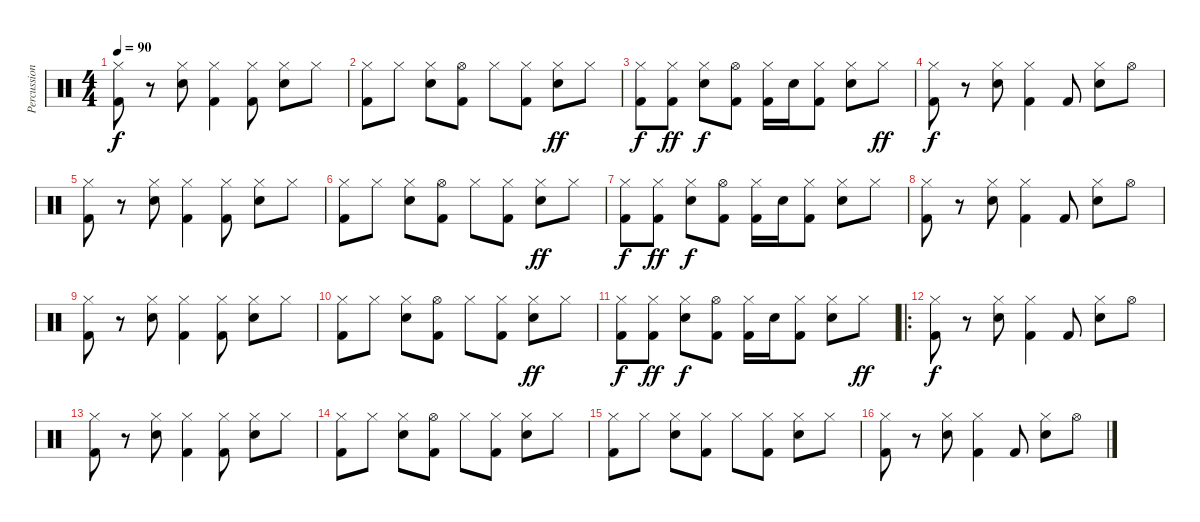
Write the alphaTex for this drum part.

\track ("Percussion" "Percussion") {instrument percussion}
\staff {score}
\articulation defaults
\ts (4 4)
\tempo 90
\clef neutral
\ks c
("Hi-Hat (closed)" "Kick (hit) 2").8{dy f} r.8 ("Hi-Hat (closed)" "Snare (hit) 2").8 ("Hi-Hat (closed)" "Kick (hit) 2").4 ("Hi-Hat (closed)" "Kick (hit) 2").8 ("Hi-Hat (closed)" "Snare (hit) 2").8 "Hi-Hat (closed)".8 |
("Hi-Hat (closed)" "Kick (hit) 2").8 "Hi-Hat (closed)".8 ("Hi-Hat (closed)" "Snare (hit) 2").8 ("Hi-Hat (open)" "Kick (hit) 2").8 "Hi-Hat (closed)".8 ("Hi-Hat (closed)" "Kick (hit) 2").8 ("Hi-Hat (closed)" "Snare (hit) 2").8{dy ff} "Hi-Hat (closed)".8 |
("Hi-Hat (closed)" "Kick (hit) 2").8{dy f} ("Hi-Hat (closed)" "Kick (hit) 2").8{dy ff} ("Hi-Hat (closed)" "Snare (hit) 2").8{dy f} ("Hi-Hat (open)" "Kick (hit) 2").8 ("Hi-Hat (closed)" "Kick (hit) 2").16 "Snare (hit) 2".16 ("Hi-Hat (closed)" "Kick (hit) 2").8 ("Hi-Hat (closed)" "Snare (hit) 2").8 "Hi-Hat (closed)".8{dy ff} |
("Hi-Hat (closed)" "Kick (hit) 2").8{dy f} r.8 ("Hi-Hat (closed)" "Snare (hit) 2").8 ("Hi-Hat (closed)" "Kick (hit) 2").4 "Kick (hit) 2".8 ("Hi-Hat (closed)" "Snare (hit) 2").8 "Hi-Hat (open)".8 |
("Hi-Hat (closed)" "Kick (hit) 2").8 r.8 ("Hi-Hat (closed)" "Snare (hit) 2").8 ("Hi-Hat (closed)" "Kick (hit) 2").4 ("Hi-Hat (closed)" "Kick (hit) 2").8 ("Hi-Hat (closed)" "Snare (hit) 2").8 "Hi-Hat (closed)".8 |
("Hi-Hat (closed)" "Kick (hit) 2").8 "Hi-Hat (closed)".8 ("Hi-Hat (closed)" "Snare (hit) 2").8 ("Hi-Hat (open)" "Kick (hit) 2").8 "Hi-Hat (closed)".8 ("Hi-Hat (closed)" "Kick (hit) 2").8 ("Hi-Hat (closed)" "Snare (hit) 2").8{dy ff} "Hi-Hat (closed)".8 |
("Hi-Hat (closed)" "Kick (hit) 2").8{dy f} ("Hi-Hat (closed)" "Kick (hit) 2").8{dy ff} ("Hi-Hat (closed)" "Snare (hit) 2").8{dy f} ("Hi-Hat (open)" "Kick (hit) 2").8 ("Hi-Hat (closed)" "Kick (hit) 2").16 "Snare (hit) 2".16 ("Hi-Hat (closed)" "Kick (hit) 2").8 ("Hi-Hat (closed)" "Snare (hit) 2").8 "Hi-Hat (closed)".8 |
("Hi-Hat (closed)" "Kick (hit) 2").8 r.8 ("Hi-Hat (closed)" "Snare (hit) 2").8 ("Hi-Hat (closed)" "Kick (hit) 2").4 "Kick (hit) 2".8 ("Hi-Hat (closed)" "Snare (hit) 2").8 "Hi-Hat (open)".8 |
("Hi-Hat (closed)" "Kick (hit) 2").8 r.8 ("Hi-Hat (closed)" "Snare (hit) 2").8 ("Hi-Hat (closed)" "Kick (hit) 2").4 ("Hi-Hat (closed)" "Kick (hit) 2").8 ("Hi-Hat (closed)" "Snare (hit) 2").8 "Hi-Hat (closed)".8 |
("Hi-Hat (closed)" "Kick (hit) 2").8 "Hi-Hat (closed)".8 ("Hi-Hat (closed)" "Snare (hit) 2").8 ("Hi-Hat (open)" "Kick (hit) 2").8 "Hi-Hat (closed)".8 ("Hi-Hat (closed)" "Kick (hit) 2").8 ("Hi-Hat (closed)" "Snare (hit) 2").8{dy ff} "Hi-Hat (closed)".8 |
("Hi-Hat (closed)" "Kick (hit) 2").8{dy f} ("Hi-Hat (closed)" "Kick (hit) 2").8{dy ff} ("Hi-Hat (closed)" "Snare (hit) 2").8{dy f} ("Hi-Hat (open)" "Kick (hit) 2").8 ("Hi-Hat (closed)" "Kick (hit) 2").16 "Snare (hit) 2".16 ("Hi-Hat (closed)" "Kick (hit) 2").8 ("Hi-Hat (closed)" "Snare (hit) 2").8 "Hi-Hat (closed)".8{dy ff} |
\ro
("Hi-Hat (closed)" "Kick (hit) 2").8{dy f} r.8 ("Hi-Hat (closed)" "Snare (hit) 2").8 ("Hi-Hat (closed)" "Kick (hit) 2").4 "Kick (hit) 2".8 ("Hi-Hat (closed)" "Snare (hit) 2").8 "Hi-Hat (open)".8 |
("Hi-Hat (closed)" "Kick (hit) 2").8 r.8 ("Hi-Hat (closed)" "Snare (hit) 2").8 ("Hi-Hat (closed)" "Kick (hit) 2").4 ("Hi-Hat (closed)" "Kick (hit) 2").8 ("Hi-Hat (closed)" "Snare (hit) 2").8 "Hi-Hat (closed)".8 |
("Hi-Hat (closed)" "Kick (hit) 2").8 "Hi-Hat (closed)".8 ("Hi-Hat (closed)" "Snare (hit) 2").8 ("Hi-Hat (open)" "Kick (hit) 2").8 "Hi-Hat (closed)".8 ("Hi-Hat (closed)" "Kick (hit) 2").8 ("Hi-Hat (closed)" "Snare (hit) 2").8 "Hi-Hat (closed)".8 |
("Hi-Hat (closed)" "Kick (hit) 2").8 "Hi-Hat (closed)".8 ("Hi-Hat (closed)" "Snare (hit) 2").8 ("Hi-Hat (closed)" "Kick (hit) 2").8 "Hi-Hat (closed)".8 ("Hi-Hat (closed)" "Kick (hit) 2").8 ("Hi-Hat (closed)" "Snare (hit) 2").8 "Hi-Hat (closed)".8 |
("Hi-Hat (closed)" "Kick (hit) 2").8 r.8 ("Hi-Hat (closed)" "Snare (hit) 2").8 ("Hi-Hat (closed)" "Kick (hit) 2").4 "Kick (hit) 2".8 ("Hi-Hat (closed)" "Snare (hit) 2").8 "Hi-Hat (open)".8
